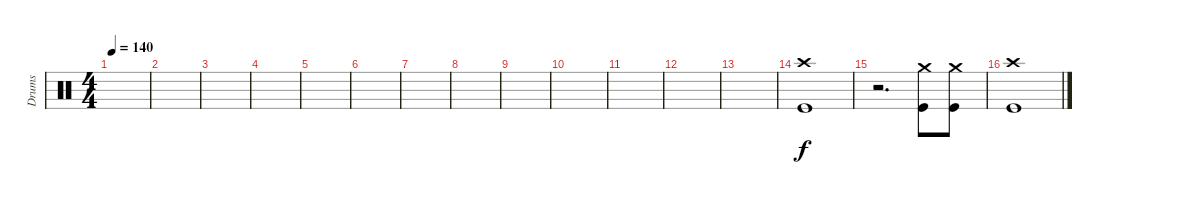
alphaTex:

\track ("Drums" "Drums") {instrument percussion}
\staff {score}
\articulation defaults
\ts (4 4)
\tempo 140
\clef neutral
\ks c
|
|
|
|
|
|
|
|
|
|
|
|
|
("Kick (hit)" "Crash high (hit)").1 |
r.2{d} ("Kick (hit)" "Crash medium (hit)").8 ("Kick (hit)" "Crash medium (hit)").8 |
("Kick (hit)" "Crash high (hit)").1
